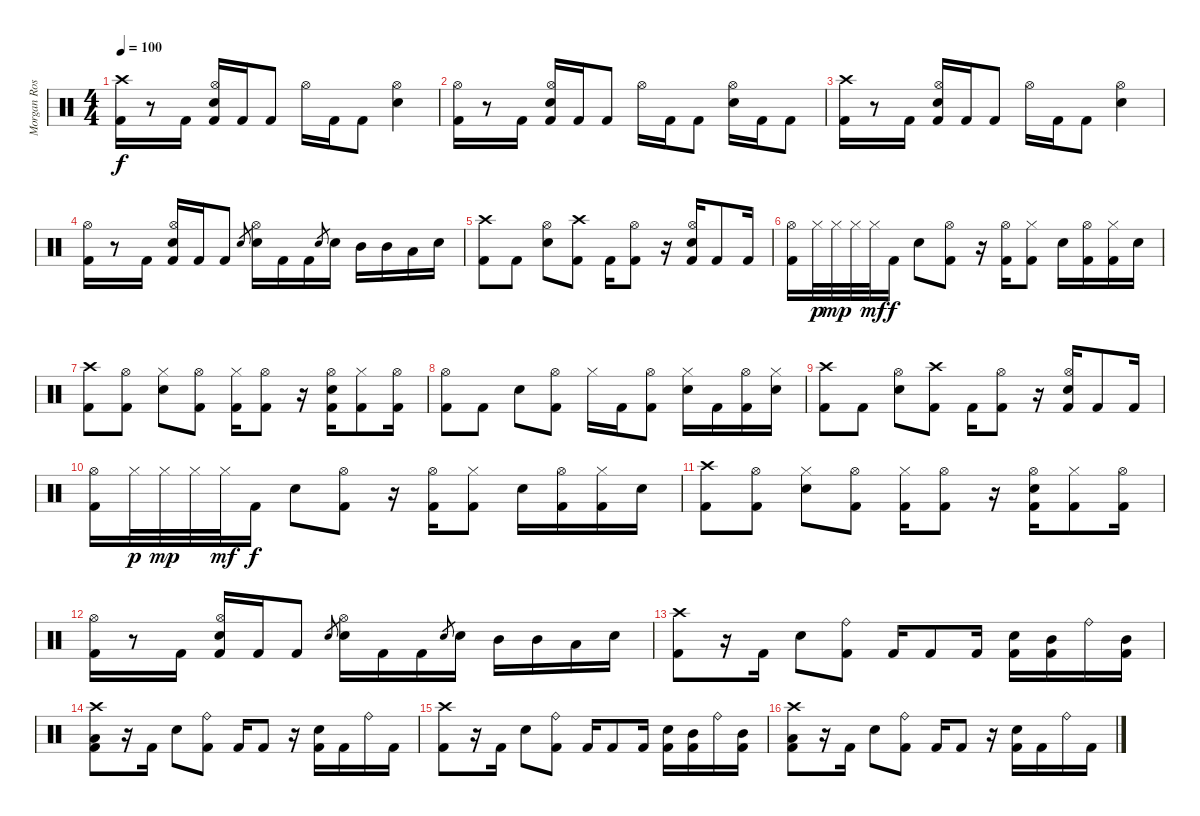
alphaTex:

\track ("Morgan Rose - Drums" "Morgan Ros") {instrument percussion}
\staff {score}
\articulation defaults
\ts (4 4)
\tempo 100
\clef neutral
\ks c
("Crash high (hit)" "Kick (hit) 2").16{dy f} r.8 "Kick (hit) 2".16 ("Hi-Hat (open)" "Electric Snare (hit)" "Kick (hit) 2").16 "Kick (hit) 2".16 "Kick (hit) 2".8 "Hi-Hat (open)".16 "Kick (hit) 2".16 "Kick (hit) 2".8 ("Hi-Hat (open)" "Electric Snare (hit)").4 |
("Hi-Hat (open)" "Kick (hit) 2").16 r.8 "Kick (hit) 2".16 ("Hi-Hat (open)" "Electric Snare (hit)" "Kick (hit) 2").16 "Kick (hit) 2".16 "Kick (hit) 2".8 "Hi-Hat (open)".16 "Kick (hit) 2".16 "Kick (hit) 2".8 ("Hi-Hat (open)" "Electric Snare (hit)").16 "Kick (hit) 2".16 "Kick (hit) 2".8 |
("Crash high (hit)" "Kick (hit) 2").16 r.8 "Kick (hit) 2".16 ("Hi-Hat (open)" "Electric Snare (hit)" "Kick (hit) 2").16 "Kick (hit) 2".16 "Kick (hit) 2".8 "Hi-Hat (open)".16 "Kick (hit) 2".16 "Kick (hit) 2".8 ("Hi-Hat (open)" "Electric Snare (hit)").4 |
("Hi-Hat (open)" "Kick (hit) 2").16 r.8 "Kick (hit) 2".16 ("Hi-Hat (open)" "Electric Snare (hit)" "Kick (hit) 2").16 "Kick (hit) 2".16 "Kick (hit) 2".8 "Electric Snare (hit)"{sl}.8{gr} ("Hi-Hat (open)" "Electric Snare (hit)").16 "Kick (hit) 2".16 "Kick (hit) 2".16 "Electric Snare (hit)".8{gr} "Electric Snare (hit)".16 "Mid Tom (hit)".16 "Mid Tom (hit)".16 "Low Tom (hit)".16 "Electric Snare (hit)".16 |
("Crash high (hit)" "Kick (hit) 2").8 "Kick (hit) 2".8 ("Hi-Hat (open)" "Electric Snare (hit)").8 ("Crash high (hit)" "Kick (hit) 2").8 "Kick (hit) 2".16 ("Hi-Hat (open)" "Kick (hit) 2").8 r.16 ("Hi-Hat (open)" "Electric Snare (hit)" "Kick (hit) 2").16 "Kick (hit) 2".8 "Kick (hit) 2".16 |
("Hi-Hat (open)" "Kick (hit) 2").16 "Hi-Hat (closed)".32{dy p} "Hi-Hat (closed)".32{dy mp} "Hi-Hat (closed)".32 "Hi-Hat (closed)".32{dy mf} "Kick (hit) 2".16{dy f} "Electric Snare (hit)".8 ("Hi-Hat (open)" "Kick (hit) 2").8 r.16 ("Hi-Hat (open)" "Kick (hit) 2").16 ("Hi-Hat (closed)" "Kick (hit) 2").8 "Electric Snare (hit)".16 ("Hi-Hat (open)" "Kick (hit) 2").16 ("Hi-Hat (closed)" "Kick (hit) 2").16 "Electric Snare (hit)".16 |
("Crash high (hit)" "Kick (hit) 2").8 ("Hi-Hat (open)" "Kick (hit) 2").8 ("Hi-Hat (closed)" "Electric Snare (hit)").8 ("Hi-Hat (open)" "Kick (hit) 2").8 ("Hi-Hat (closed)" "Kick (hit) 2").16 ("Hi-Hat (open)" "Kick (hit) 2").8 r.16 ("Hi-Hat (open)" "Electric Snare (hit)" "Kick (hit) 2").16 ("Hi-Hat (closed)" "Kick (hit) 2").8 ("Hi-Hat (open)" "Kick (hit) 2").16 |
("Hi-Hat (open)" "Kick (hit) 2").8 "Kick (hit) 2".8 "Electric Snare (hit)".8 ("Hi-Hat (open)" "Kick (hit) 2").8 "Hi-Hat (closed)".16 "Kick (hit) 2".16 ("Hi-Hat (open)" "Kick (hit) 2").8 ("Hi-Hat (closed)" "Electric Snare (hit)").16 "Kick (hit) 2".16 ("Hi-Hat (open)" "Kick (hit) 2").16 ("Hi-Hat (closed)" "Electric Snare (hit)").16 |
("Crash high (hit)" "Kick (hit) 2").8 "Kick (hit) 2".8 ("Hi-Hat (open)" "Electric Snare (hit)").8 ("Crash high (hit)" "Kick (hit) 2").8 "Kick (hit) 2".16 ("Hi-Hat (open)" "Kick (hit) 2").8 r.16 ("Hi-Hat (open)" "Electric Snare (hit)" "Kick (hit) 2").16 "Kick (hit) 2".8 "Kick (hit) 2".16 |
("Hi-Hat (open)" "Kick (hit) 2").16 "Hi-Hat (closed)".32{dy p} "Hi-Hat (closed)".32{dy mp} "Hi-Hat (closed)".32 "Hi-Hat (closed)".32{dy mf} "Kick (hit) 2".16{dy f} "Electric Snare (hit)".8 ("Hi-Hat (open)" "Kick (hit) 2").8 r.16 ("Hi-Hat (open)" "Kick (hit) 2").16 ("Hi-Hat (closed)" "Kick (hit) 2").8 "Electric Snare (hit)".16 ("Hi-Hat (open)" "Kick (hit) 2").16 ("Hi-Hat (closed)" "Kick (hit) 2").16 "Electric Snare (hit)".16 |
("Crash high (hit)" "Kick (hit) 2").8 ("Hi-Hat (open)" "Kick (hit) 2").8 ("Hi-Hat (closed)" "Electric Snare (hit)").8 ("Hi-Hat (open)" "Kick (hit) 2").8 ("Hi-Hat (closed)" "Kick (hit) 2").16 ("Hi-Hat (open)" "Kick (hit) 2").8 r.16 ("Hi-Hat (open)" "Electric Snare (hit)" "Kick (hit) 2").16 ("Hi-Hat (closed)" "Kick (hit) 2").8 ("Hi-Hat (open)" "Kick (hit) 2").16 |
("Hi-Hat (open)" "Kick (hit) 2").16 r.8 "Kick (hit) 2".16 ("Hi-Hat (open)" "Electric Snare (hit)" "Kick (hit) 2").16 "Kick (hit) 2".16 "Kick (hit) 2".8 "Electric Snare (hit)"{sl}.8{gr} ("Hi-Hat (open)" "Electric Snare (hit)").16 "Kick (hit) 2".16 "Kick (hit) 2".16 "Electric Snare (hit)".8{gr} "Electric Snare (hit)".16 "Mid Tom (hit)".16 "Mid Tom (hit)".16 "Low Tom (hit)".16 "Electric Snare (hit)".16 |
("Crash high (hit)" "Kick (hit) 2").8 r.16 "Kick (hit) 2".16 "Electric Snare (hit)".8 ("Ride (bell)" "Kick (hit) 2").8 "Kick (hit) 2".16 "Kick (hit) 2".8 "Kick (hit) 2".16 ("Electric Snare (hit)" "Kick (hit) 2").16 ("Mid Tom (hit)" "Kick (hit) 2").16 "Ride (bell)".16 ("Mid Tom (hit)" "Kick (hit) 2").16 |
("Crash high (hit)" "Low Tom (hit)" "Kick (hit) 2").8 r.16 "Kick (hit) 2".16 "Electric Snare (hit)".8 ("Ride (bell)" "Kick (hit) 2").8 "Kick (hit) 2".16 "Kick (hit) 2".8 r.16 ("Electric Snare (hit)" "Kick (hit) 2").16 "Kick (hit) 2".16 "Ride (bell)".16 "Kick (hit) 2".16 |
("Crash high (hit)" "Kick (hit) 2").8 r.16 "Kick (hit) 2".16 "Electric Snare (hit)".8 ("Ride (bell)" "Kick (hit) 2").8 "Kick (hit) 2".16 "Kick (hit) 2".8 "Kick (hit) 2".16 ("Electric Snare (hit)" "Kick (hit) 2").16 ("Mid Tom (hit)" "Kick (hit) 2").16 "Ride (bell)".16 ("Mid Tom (hit)" "Kick (hit) 2").16 |
("Crash high (hit)" "Low Tom (hit)" "Kick (hit) 2").8 r.16 "Kick (hit) 2".16 "Electric Snare (hit)".8 ("Ride (bell)" "Kick (hit) 2").8 "Kick (hit) 2".16 "Kick (hit) 2".8 r.16 ("Electric Snare (hit)" "Kick (hit) 2").16 "Kick (hit) 2".16 "Ride (bell)".16 "Kick (hit) 2".16
